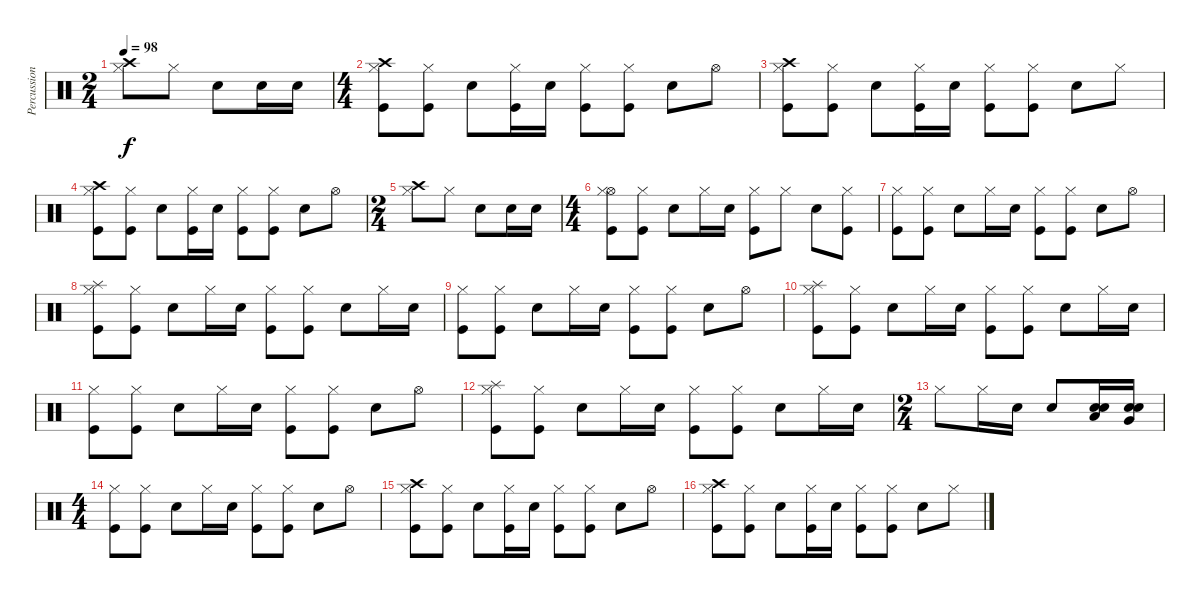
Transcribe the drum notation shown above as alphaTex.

\track ("Percussions" "Percussion") {instrument percussion}
\staff {score}
\articulation defaults
\ts (2 4)
\tempo 98
\clef neutral
\ks c
("Crash high (hit)" "Hi-Hat (closed)").8{dy f} "Hi-Hat (closed)".8 "Electric Snare (hit)".8 "Snare (hit) 2".16 "Snare (hit) 2".16 |
\ts (4 4)
("Crash high (hit)" "Hi-Hat (closed)" "Kick (hit)").8 ("Hi-Hat (closed)" "Kick (hit)").8 "Electric Snare (hit)".8 ("Hi-Hat (closed)" "Kick (hit)").16 "Electric Snare (hit)".16 ("Hi-Hat (closed)" "Kick (hit)").8 ("Hi-Hat (closed)" "Kick (hit)").8 "Electric Snare (hit)".8 "Hi-Hat (open)".8 |
("Crash high (hit)" "Hi-Hat (closed)" "Kick (hit)").8 ("Hi-Hat (closed)" "Kick (hit)").8 "Electric Snare (hit)".8 ("Hi-Hat (closed)" "Kick (hit)").16 "Electric Snare (hit)".16 ("Hi-Hat (closed)" "Kick (hit)").8 ("Hi-Hat (closed)" "Kick (hit)").8 "Electric Snare (hit)".8 "Hi-Hat (closed)".8 |
("Crash high (hit)" "Hi-Hat (closed)" "Kick (hit)").8 ("Hi-Hat (closed)" "Kick (hit)").8 "Electric Snare (hit)".8 ("Hi-Hat (closed)" "Kick (hit)").16 "Electric Snare (hit)".16 ("Hi-Hat (closed)" "Kick (hit)").8 ("Hi-Hat (closed)" "Kick (hit)").8 "Electric Snare (hit)".8 "Hi-Hat (open)".8 |
\ts (2 4)
("Crash high (hit)" "Hi-Hat (closed)").8 "Hi-Hat (closed)".8 "Electric Snare (hit)".8 "Snare (hit) 2".16 "Snare (hit) 2".16 |
\ts (4 4)
("Hi-Hat (open)" "Hi-Hat (closed)" "Kick (hit)").8 ("Hi-Hat (closed)" "Kick (hit)").8 "Electric Snare (hit)".8 "Hi-Hat (closed)".16 "Electric Snare (hit)".16 ("Hi-Hat (closed)" "Kick (hit)").8 "Hi-Hat (closed)".8 "Electric Snare (hit)".8 ("Hi-Hat (closed)" "Kick (hit)").8 |
("Hi-Hat (closed)" "Kick (hit)").8 ("Hi-Hat (closed)" "Kick (hit)").8 "Electric Snare (hit)".8 "Hi-Hat (closed)".16 "Electric Snare (hit)".16 ("Hi-Hat (closed)" "Kick (hit)").8 ("Hi-Hat (closed)" "Kick (hit)").8 "Electric Snare (hit)".8 "Hi-Hat (open)".8 |
("Splash (hit)" "Hi-Hat (closed)" "Kick (hit)").8 ("Hi-Hat (closed)" "Kick (hit)").8 "Electric Snare (hit)".8 "Hi-Hat (closed)".16 "Electric Snare (hit)".16 ("Hi-Hat (closed)" "Kick (hit)").8 ("Hi-Hat (closed)" "Kick (hit)").8 "Electric Snare (hit)".8 "Hi-Hat (closed)".16 "Electric Snare (hit)".16 |
("Hi-Hat (closed)" "Kick (hit)").8 ("Hi-Hat (closed)" "Kick (hit)").8 "Electric Snare (hit)".8 "Hi-Hat (closed)".16 "Electric Snare (hit)".16 ("Hi-Hat (closed)" "Kick (hit)").8 ("Hi-Hat (closed)" "Kick (hit)").8 "Electric Snare (hit)".8 "Hi-Hat (open)".8 |
("Splash (hit)" "Hi-Hat (closed)" "Kick (hit)").8 ("Hi-Hat (closed)" "Kick (hit)").8 "Electric Snare (hit)".8 "Hi-Hat (closed)".16 "Electric Snare (hit)".16 ("Hi-Hat (closed)" "Kick (hit)").8 ("Hi-Hat (closed)" "Kick (hit)").8 "Electric Snare (hit)".8 "Hi-Hat (closed)".16 "Electric Snare (hit)".16 |
("Hi-Hat (closed)" "Kick (hit)").8 ("Hi-Hat (closed)" "Kick (hit)").8 "Electric Snare (hit)".8 "Hi-Hat (closed)".16 "Electric Snare (hit)".16 ("Hi-Hat (closed)" "Kick (hit)").8 ("Hi-Hat (closed)" "Kick (hit)").8 "Electric Snare (hit)".8 "Hi-Hat (open)".8 |
("Splash (hit)" "Hi-Hat (closed)" "Kick (hit)").8 ("Hi-Hat (closed)" "Kick (hit)").8 "Electric Snare (hit)".8 "Hi-Hat (closed)".16 "Electric Snare (hit)".16 ("Hi-Hat (closed)" "Kick (hit)").8 ("Hi-Hat (closed)" "Kick (hit)").8 "Electric Snare (hit)".8 "Hi-Hat (closed)".16 "Electric Snare (hit)".16 |
\ts (2 4)
"Hi-Hat (closed)".8 "Hi-Hat (closed)".16 "Snare (hit) 2".16 "Electric Snare (hit)".8 ("Low Tom (hit)" "Electric Snare (hit)" "Snare (hit) 2").16 ("Very Low Tom (hit)" "Electric Snare (hit)" "Snare (hit) 2").16 |
\ts (4 4)
("Hi-Hat (closed)" "Kick (hit)").8 ("Hi-Hat (closed)" "Kick (hit)").8 "Electric Snare (hit)".8 "Hi-Hat (closed)".16 "Electric Snare (hit)".16 ("Hi-Hat (closed)" "Kick (hit)").8 ("Hi-Hat (closed)" "Kick (hit)").8 "Electric Snare (hit)".8 "Hi-Hat (open)".8 |
("Crash high (hit)" "Hi-Hat (closed)" "Kick (hit)").8 ("Hi-Hat (closed)" "Kick (hit)").8 "Electric Snare (hit)".8 ("Hi-Hat (closed)" "Kick (hit)").16 "Electric Snare (hit)".16 ("Hi-Hat (closed)" "Kick (hit)").8 ("Hi-Hat (closed)" "Kick (hit)").8 "Electric Snare (hit)".8 "Hi-Hat (open)".8 |
("Crash high (hit)" "Hi-Hat (closed)" "Kick (hit)").8 ("Hi-Hat (closed)" "Kick (hit)").8 "Electric Snare (hit)".8 ("Hi-Hat (closed)" "Kick (hit)").16 "Electric Snare (hit)".16 ("Hi-Hat (closed)" "Kick (hit)").8 ("Hi-Hat (closed)" "Kick (hit)").8 "Electric Snare (hit)".8 "Hi-Hat (closed)".8
